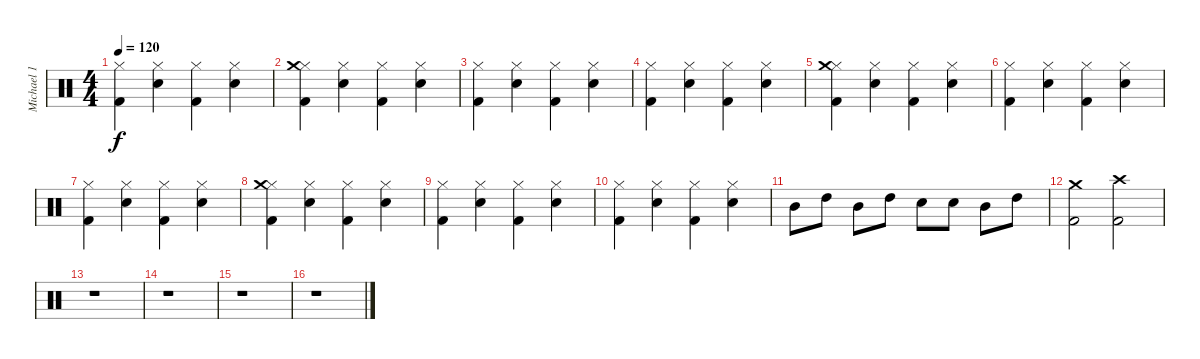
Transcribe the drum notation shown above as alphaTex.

\track ("Michael 1" "Michael 1") {instrument percussion}
\staff {score}
\articulation defaults
\ts (4 4)
\tempo 120
\clef neutral
\ks c
("Kick (hit) 2" "Hi-Hat (closed)").4{dy f} ("Snare (hit) 2" "Hi-Hat (closed)").4 ("Kick (hit) 2" "Hi-Hat (closed)").4 ("Snare (hit) 2" "Hi-Hat (closed)").4 |
("Kick (hit) 2" "Hi-Hat (closed)" "Crash medium (hit)").4 ("Snare (hit) 2" "Hi-Hat (closed)").4 ("Kick (hit) 2" "Hi-Hat (closed)").4 ("Snare (hit) 2" "Hi-Hat (closed)").4 |
("Kick (hit) 2" "Hi-Hat (closed)").4 ("Snare (hit) 2" "Hi-Hat (closed)").4 ("Kick (hit) 2" "Hi-Hat (closed)").4 ("Snare (hit) 2" "Hi-Hat (closed)").4 |
("Kick (hit) 2" "Hi-Hat (closed)").4 ("Snare (hit) 2" "Hi-Hat (closed)").4 ("Kick (hit) 2" "Hi-Hat (closed)").4 ("Snare (hit) 2" "Hi-Hat (closed)").4 |
("Kick (hit) 2" "Hi-Hat (closed)" "Crash medium (hit)").4 ("Snare (hit) 2" "Hi-Hat (closed)").4 ("Kick (hit) 2" "Hi-Hat (closed)").4 ("Snare (hit) 2" "Hi-Hat (closed)").4 |
("Kick (hit) 2" "Hi-Hat (closed)").4 ("Snare (hit) 2" "Hi-Hat (closed)").4 ("Kick (hit) 2" "Hi-Hat (closed)").4 ("Snare (hit) 2" "Hi-Hat (closed)").4 |
("Kick (hit) 2" "Hi-Hat (closed)").4 ("Snare (hit) 2" "Hi-Hat (closed)").4 ("Kick (hit) 2" "Hi-Hat (closed)").4 ("Snare (hit) 2" "Hi-Hat (closed)").4 |
("Kick (hit) 2" "Hi-Hat (closed)" "Crash medium (hit)").4 ("Snare (hit) 2" "Hi-Hat (closed)").4 ("Kick (hit) 2" "Hi-Hat (closed)").4 ("Snare (hit) 2" "Hi-Hat (closed)").4 |
("Kick (hit) 2" "Hi-Hat (closed)").4 ("Snare (hit) 2" "Hi-Hat (closed)").4 ("Kick (hit) 2" "Hi-Hat (closed)").4 ("Snare (hit) 2" "Hi-Hat (closed)").4 |
("Kick (hit) 2" "Hi-Hat (closed)").4 ("Snare (hit) 2" "Hi-Hat (closed)").4 ("Kick (hit) 2" "Hi-Hat (closed)").4 ("Snare (hit) 2" "Hi-Hat (closed)").4 |
"Mid Tom (hit)".8 "High Tom (hit)".8 "Mid Tom (hit)".8 "High Tom (hit)".8 "Snare (hit) 2".8 "Snare (hit) 2".8 "Mid Tom (hit)".8 "High Tom (hit)".8 |
("Kick (hit) 2" "Crash medium (hit)").2 ("Crash high (hit)" "Kick (hit) 2").2 |
r.1 |
r.1 |
r.1 |
r.1
